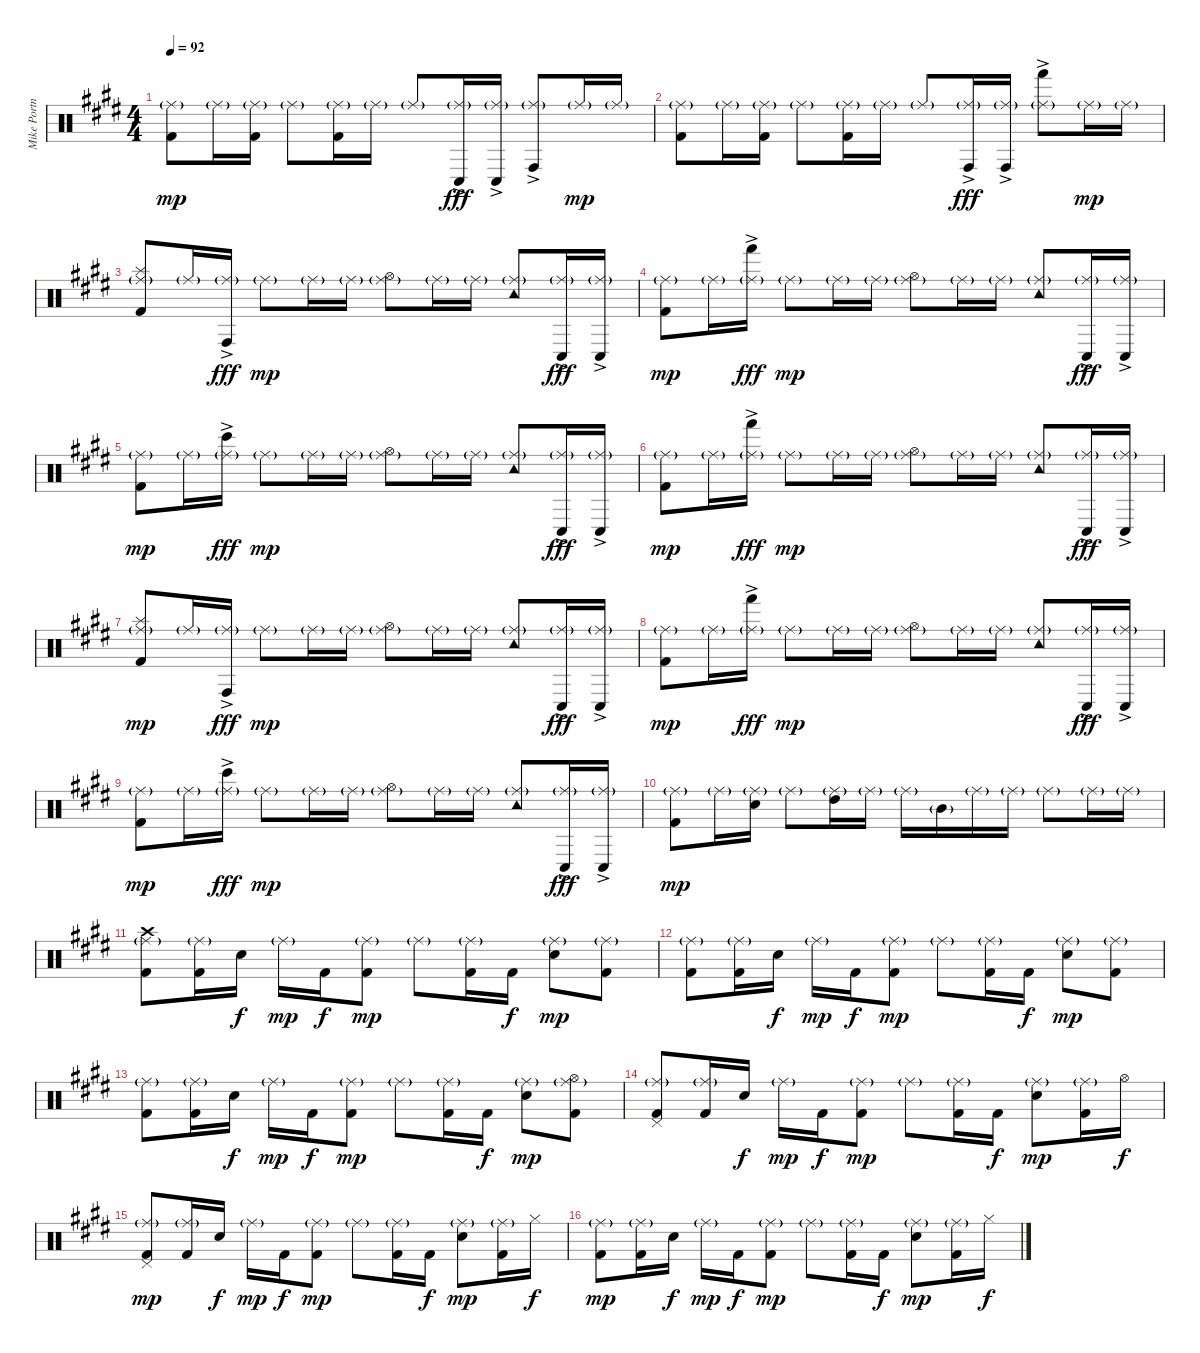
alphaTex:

\track ("Mike Portnoy" "Mike Portn") {instrument percussion}
\staff {score}
\articulation defaults
\ts (4 4)
\tempo 92
\clef neutral
\ks e
("Ride (middle)"{g} "Kick (hit) 2").8{dy mp} "Ride (middle)"{g}.16 ("Ride (middle)"{g} "Kick (hit) 2").16 "Ride (middle)"{g}.8 ("Ride (middle)"{g} "Kick (hit) 2").16 "Ride (middle)"{g}.16 "Ride (middle)"{g}.8 ("Ride (middle)"{g} "Conga low (hit)"{ac}).16{dy fff} ("Ride (middle)"{g} "Conga low (hit)"{ac}).16 ("Ride (middle)"{g} "Conga high (hit)"{ac}).8 "Ride (middle)"{g}.16{dy mp} "Ride (middle)"{g}.16 |
("Ride (middle)"{g} "Kick (hit) 2").8 "Ride (middle)"{g}.16 ("Ride (middle)"{g} "Kick (hit) 2").16 "Ride (middle)"{g}.8 ("Ride (middle)"{g} "Kick (hit) 2").16 "Ride (middle)"{g}.16 "Ride (middle)"{g}.8 ("Ride (middle)"{g} "Conga high (hit)"{ac}).16{dy fff} ("Ride (middle)"{g} "Conga high (hit)"{ac}).16 ("Ride (middle)"{g} "Hand (hit)"{ac}).8 "Ride (middle)"{g}.16{dy mp} "Ride (middle)"{g}.16 |
("Splash (hit)" "Ride (middle)"{g} "Kick (hit) 2").8 "Ride (middle)"{g}.16 ("Ride (middle)"{g} "Conga high (hit)"{ac}).16{dy fff} "Ride (middle)"{g}.8{dy mp} "Ride (middle)"{g}.16 "Ride (middle)"{g}.16 ("Hi-Hat (open)" "Ride (middle)"{g}).8 "Ride (middle)"{g}.16 "Ride (middle)"{g}.16 ("Tambourine (hit)" "Ride (middle)"{g}).8 ("Ride (middle)"{g} "Conga low (hit)"{ac}).16{dy fff} ("Ride (middle)"{g} "Conga low (hit)"{ac}).16 |
("Ride (middle)"{g} "Kick (hit) 2").8{dy mp} "Ride (middle)"{g}.16 ("Ride (middle)"{g} "Hand (hit)"{ac}).16{dy fff} "Ride (middle)"{g}.8{dy mp} "Ride (middle)"{g}.16 "Ride (middle)"{g}.16 ("Hi-Hat (open)" "Ride (middle)"{g}).8 "Ride (middle)"{g}.16 "Ride (middle)"{g}.16 ("Tambourine (hit)" "Ride (middle)"{g}).8 ("Ride (middle)"{g} "Conga low (hit)"{ac}).16{dy fff} ("Ride (middle)"{g} "Conga low (hit)"{ac}).16 |
("Ride (middle)"{g} "Kick (hit) 2").8{dy mp} "Ride (middle)"{g}.16 ("Ride (middle)"{g} "Bongo High (hit)"{ac}).16{dy fff} "Ride (middle)"{g}.8{dy mp} "Ride (middle)"{g}.16 "Ride (middle)"{g}.16 ("Hi-Hat (open)" "Ride (middle)"{g}).8 "Ride (middle)"{g}.16 "Ride (middle)"{g}.16 ("Tambourine (hit)" "Ride (middle)"{g}).8 ("Ride (middle)"{g} "Conga low (hit)"{ac}).16{dy fff} ("Ride (middle)"{g} "Conga low (hit)"{ac}).16 |
("Ride (middle)"{g} "Kick (hit) 2").8{dy mp} "Ride (middle)"{g}.16 ("Ride (middle)"{g} "Hand (hit)"{ac}).16{dy fff} "Ride (middle)"{g}.8{dy mp} "Ride (middle)"{g}.16 "Ride (middle)"{g}.16 ("Hi-Hat (open)" "Ride (middle)"{g}).8 "Ride (middle)"{g}.16 "Ride (middle)"{g}.16 ("Tambourine (hit)" "Ride (middle)"{g}).8 ("Ride (middle)"{g} "Conga low (hit)"{ac}).16{dy fff} ("Ride (middle)"{g} "Conga low (hit)"{ac}).16 |
("Splash (hit)" "Ride (middle)"{g} "Kick (hit) 2").8{dy mp} "Ride (middle)"{g}.16 ("Ride (middle)"{g} "Conga high (hit)"{ac}).16{dy fff} "Ride (middle)"{g}.8{dy mp} "Ride (middle)"{g}.16 "Ride (middle)"{g}.16 ("Hi-Hat (open)" "Ride (middle)"{g}).8 "Ride (middle)"{g}.16 "Ride (middle)"{g}.16 ("Tambourine (hit)" "Ride (middle)"{g}).8 ("Ride (middle)"{g} "Conga low (hit)"{ac}).16{dy fff} ("Ride (middle)"{g} "Conga low (hit)"{ac}).16 |
("Ride (middle)"{g} "Kick (hit) 2").8{dy mp} "Ride (middle)"{g}.16 ("Ride (middle)"{g} "Hand (hit)"{ac}).16{dy fff} "Ride (middle)"{g}.8{dy mp} "Ride (middle)"{g}.16 "Ride (middle)"{g}.16 ("Hi-Hat (open)" "Ride (middle)"{g}).8 "Ride (middle)"{g}.16 "Ride (middle)"{g}.16 ("Tambourine (hit)" "Ride (middle)"{g}).8 ("Ride (middle)"{g} "Conga low (hit)"{ac}).16{dy fff} ("Ride (middle)"{g} "Conga low (hit)"{ac}).16 |
("Ride (middle)"{g} "Kick (hit) 2").8{dy mp} "Ride (middle)"{g}.16 ("Ride (middle)"{g} "Bongo High (hit)"{ac}).16{dy fff} "Ride (middle)"{g}.8{dy mp} "Ride (middle)"{g}.16 "Ride (middle)"{g}.16 ("Hi-Hat (open)" "Ride (middle)"{g}).8 "Ride (middle)"{g}.16 "Ride (middle)"{g}.16 ("Tambourine (hit)" "Ride (middle)"{g}).8 ("Ride (middle)"{g} "Conga low (hit)"{ac}).16{dy fff} ("Ride (middle)"{g} "Conga low (hit)"{ac}).16 |
("Ride (middle)"{g} "Kick (hit) 2").8{dy mp} "Ride (middle)"{g}.16 ("Ride (middle)"{g} "Snare (hit) 2").16 "Ride (middle)"{g}.8 ("Ride (middle)"{g} "High Tom (hit)").16 "Ride (middle)"{g}.16 "Ride (middle)"{g}.16 "Mid Tom (hit)"{g}.16 "Ride (middle)"{g}.16 "Ride (middle)"{g}.16 "Ride (middle)"{g}.8 "Ride (middle)"{g}.16 "Ride (middle)"{g}.16 |
("Crash high (hit)" "Ride (middle)"{g} "Kick (hit) 2").8 ("Ride (middle)"{g} "Kick (hit) 2").16 "Snare (hit) 2".16{dy f} "Ride (middle)"{g}.16{dy mp} "Kick (hit) 2".16{dy f} ("Ride (middle)"{g} "Kick (hit) 2").8{dy mp} "Ride (middle)"{g}.8 ("Ride (middle)"{g} "Kick (hit) 2").16 "Kick (hit) 2".16{dy f} ("Ride (middle)"{g} "Snare (hit) 2").8{dy mp} ("Ride (middle)"{g} "Kick (hit) 2").8 |
("Ride (middle)"{g} "Kick (hit) 2").8 ("Ride (middle)"{g} "Kick (hit) 2").16 "Snare (hit) 2".16{dy f} "Ride (middle)"{g}.16{dy mp} "Kick (hit) 2".16{dy f} ("Ride (middle)"{g} "Kick (hit) 2").8{dy mp} "Ride (middle)"{g}.8 ("Ride (middle)"{g} "Kick (hit) 2").16 "Kick (hit) 2".16{dy f} ("Ride (middle)"{g} "Snare (hit) 2").8{dy mp} ("Ride (middle)"{g} "Kick (hit) 2").8 |
("Ride (middle)"{g} "Kick (hit) 2").8 ("Ride (middle)"{g} "Kick (hit) 2").16 "Snare (hit) 2".16{dy f} "Ride (middle)"{g}.16{dy mp} "Kick (hit) 2".16{dy f} ("Ride (middle)"{g} "Kick (hit) 2").8{dy mp} "Ride (middle)"{g}.8 ("Ride (middle)"{g} "Kick (hit) 2").16 "Kick (hit) 2".16{dy f} ("Ride (middle)"{g} "Snare (hit) 2").8{dy mp} ("Hi-Hat (open)" "Ride (middle)"{g} "Kick (hit) 2").8 |
("Ride (middle)"{g} "Pedal Hi-Hat (hit)" "Kick (hit) 2").8 ("Ride (middle)"{g} "Kick (hit) 2").16 "Snare (hit) 2".16{dy f} "Ride (middle)"{g}.16{dy mp} "Kick (hit) 2".16{dy f} ("Ride (middle)"{g} "Kick (hit) 2").8{dy mp} "Ride (middle)"{g}.8 ("Ride (middle)"{g} "Kick (hit) 2").16 "Kick (hit) 2".16{dy f} ("Ride (middle)"{g} "Snare (hit) 2").8{dy mp} ("Ride (middle)"{g} "Kick (hit) 2").16 "Hi-Hat (open)".16{dy f} |
("Ride (middle)"{g} "Pedal Hi-Hat (hit)" "Kick (hit) 2").8{dy mp} ("Ride (middle)"{g} "Kick (hit) 2").16 "Snare (hit) 2".16{dy f} "Ride (middle)"{g}.16{dy mp} "Kick (hit) 2".16{dy f} ("Ride (middle)"{g} "Kick (hit) 2").8{dy mp} "Ride (middle)"{g}.8 ("Ride (middle)"{g} "Kick (hit) 2").16 "Kick (hit) 2".16{dy f} ("Ride (middle)"{g} "Snare (hit) 2").8{dy mp} ("Ride (middle)"{g} "Kick (hit) 2").16 "Hi-Hat (closed)".16{dy f} |
("Ride (middle)"{g} "Kick (hit) 2").8{dy mp} ("Ride (middle)"{g} "Kick (hit) 2").16 "Snare (hit) 2".16{dy f} "Ride (middle)"{g}.16{dy mp} "Kick (hit) 2".16{dy f} ("Ride (middle)"{g} "Kick (hit) 2").8{dy mp} "Ride (middle)"{g}.8 ("Ride (middle)"{g} "Kick (hit) 2").16 "Kick (hit) 2".16{dy f} ("Ride (middle)"{g} "Snare (hit) 2").8{dy mp} ("Ride (middle)"{g} "Kick (hit) 2").16 "Hi-Hat (closed)".16{dy f}
